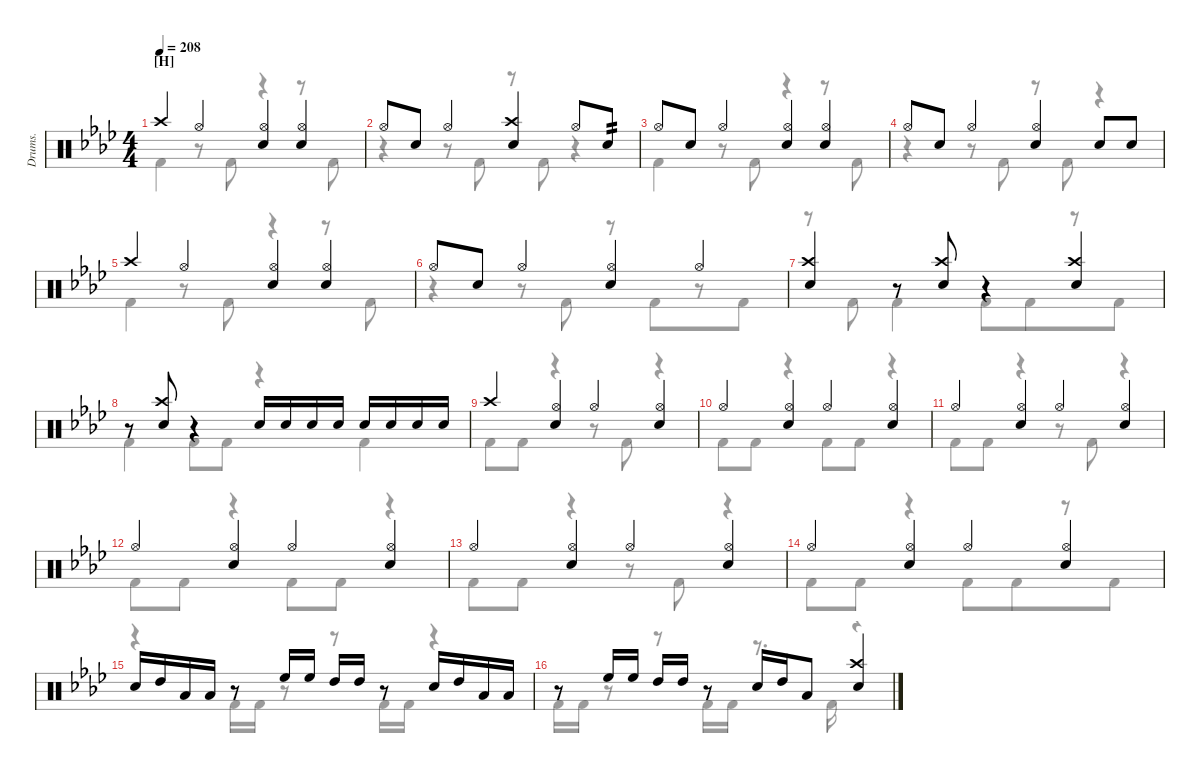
\defaultSystemsLayout 4
\hideDynamics
\otherSystemsTrackNameOrientation horizontal
\track ("Drumkit" "Drums.") {defaultSystemsLayout 4 instrument percussion}
\staff {score}
\articulation defaults
\voice
\ts (4 4)
\section ("H" "")
\tempo 208
\clef neutral
\ks fminor "Crash high (hit)"{acc forcenatural}.4{dy mf} "Hi-Hat (open)"{acc forcenatural}.4
("Hi-Hat (open)"{acc forcenatural} "Snare (hit) 2"{acc forcenatural}).4 ("Hi-Hat (open)"{acc forcenatural} "Snare (hit) 2"{acc forcenatural}).4 |
"Hi-Hat (open)"{acc forcenatural}.8 "Snare (hit) 2"{acc forcenatural}.8 "Hi-Hat (open)"{acc forcenatural}.4 ("Snare (hit) 2"{acc forcenatural} "Crash high (hit)"{acc forcenatural}).4 "Hi-Hat (open)"{acc forcenatural}.8 "Snare (hit) 2"{acc forcenatural}.8{tp 2} |
"Hi-Hat (open)"{acc forcenatural}.8 "Snare (hit) 2"{acc forcenatural}.8 "Hi-Hat (open)"{acc forcenatural}.4 ("Hi-Hat (open)"{acc forcenatural} "Snare (hit) 2"{acc forcenatural}).4 ("Hi-Hat (open)"{acc forcenatural} "Snare (hit) 2"{acc forcenatural}).4 |
"Hi-Hat (open)"{acc forcenatural}.8 "Snare (hit) 2"{acc forcenatural}.8 "Hi-Hat (open)"{acc forcenatural}.4 ("Hi-Hat (open)"{acc forcenatural} "Snare (hit) 2"{acc forcenatural}).4 "Snare (hit) 2"{acc forcenatural}.8 "Snare (hit) 2"{acc forcenatural}.8 |
"Crash high (hit)"{acc forcenatural}.4 "Hi-Hat (open)"{acc forcenatural}.4 ("Hi-Hat (open)"{acc forcenatural} "Snare (hit) 2"{acc forcenatural}).4 ("Hi-Hat (open)"{acc forcenatural} "Snare (hit) 2"{acc forcenatural}).4 |
"Hi-Hat (open)"{acc forcenatural}.8 "Snare (hit) 2"{acc forcenatural}.8 "Hi-Hat (open)"{acc forcenatural}.4 ("Snare (hit) 2"{acc forcenatural} "Hi-Hat (open)"{acc forcenatural}).4 "Hi-Hat (open)"{acc forcenatural}.4 |
("Crash high (hit)"{acc forcenatural} "Snare (hit) 2"{acc forcenatural}).4 r.8 ("Crash high (hit)"{acc forcenatural} "Snare (hit) 2"{acc forcenatural}).8 r.4 ("Crash high (hit)"{acc forcenatural} "Snare (hit) 2"{acc forcenatural}).4 |
r.8 ("Snare (hit) 2"{acc forcenatural} "Crash high (hit)"{acc forcenatural}).8 r.4 "Snare (hit) 2"{acc forcenatural}.16 "Snare (hit) 2"{acc forcenatural}.16 "Snare (hit) 2"{acc forcenatural}.16 "Snare (hit) 2"{acc forcenatural}.16 "Snare (hit) 2"{acc forcenatural}.16 "Snare (hit) 2"{acc forcenatural}.16 "Snare (hit) 2"{acc forcenatural}.16 "Snare (hit) 2"{acc forcenatural}.16 |
"Crash high (hit)"{acc forcenatural}.4 ("Snare (hit) 2"{acc forcenatural} "Hi-Hat (open)"{acc forcenatural}).4 "Hi-Hat (open)"{acc forcenatural}.4 ("Snare (hit) 2"{acc forcenatural} "Hi-Hat (open)"{acc forcenatural}).4 |
"Hi-Hat (open)"{acc forcenatural}.4 ("Snare (hit) 2"{acc forcenatural} "Hi-Hat (open)"{acc forcenatural}).4 "Hi-Hat (open)"{acc forcenatural}.4 ("Snare (hit) 2"{acc forcenatural} "Hi-Hat (open)"{acc forcenatural}).4 |
"Hi-Hat (open)"{acc forcenatural}.4 ("Snare (hit) 2"{acc forcenatural} "Hi-Hat (open)"{acc forcenatural}).4 "Hi-Hat (open)"{acc forcenatural}.4 ("Snare (hit) 2"{acc forcenatural} "Hi-Hat (open)"{acc forcenatural}).4 |
"Hi-Hat (open)"{acc forcenatural}.4 ("Snare (hit) 2"{acc forcenatural} "Hi-Hat (open)"{acc forcenatural}).4 "Hi-Hat (open)"{acc forcenatural}.4 ("Snare (hit) 2"{acc forcenatural} "Hi-Hat (open)"{acc forcenatural}).4 |
"Hi-Hat (open)"{acc forcenatural}.4 ("Snare (hit) 2"{acc forcenatural} "Hi-Hat (open)"{acc forcenatural}).4 "Hi-Hat (open)"{acc forcenatural}.4 ("Snare (hit) 2"{acc forcenatural} "Hi-Hat (open)"{acc forcenatural}).4 |
"Hi-Hat (open)"{acc forcenatural}.4 ("Snare (hit) 2"{acc forcenatural} "Hi-Hat (open)"{acc forcenatural}).4 "Hi-Hat (open)"{acc forcenatural}.4 ("Snare (hit) 2"{acc forcenatural} "Hi-Hat (open)"{acc forcenatural}).4 |
"Snare (hit) 2"{acc forcenatural}.16 "High Tom (hit)"{acc forcenatural}.16 "Low Tom (hit)"{acc forcenatural}.16 "Low Tom (hit)"{acc forcenatural}.16 r.8 "High Floor Tom (hit)"{acc forcenatural}.16 "High Floor Tom (hit)"{acc forcenatural}.16 "High Tom (hit)"{acc forcenatural}.16 "High Tom (hit)"{acc forcenatural}.16 r.8 "Snare (hit) 2"{acc forcenatural}.16 "High Tom (hit)"{acc forcenatural}.16 "Low Tom (hit)"{acc forcenatural}.16 "Low Tom (hit)"{acc forcenatural}.16 |
r.8 "High Floor Tom (hit)"{acc forcenatural}.16 "High Floor Tom (hit)"{acc forcenatural}.16 "High Tom (hit)"{acc forcenatural}.16 "High Tom (hit)"{acc forcenatural}.16 r.8 "Snare (hit) 2"{acc forcenatural}.16 "High Tom (hit)"{acc forcenatural}.16 "Low Tom (hit)"{acc forcenatural}.8 ("Snare (hit) 2"{acc forcenatural} "Crash high (hit)"{acc forcenatural}).4
\voice
\clef neutral
\ottava regular
\simile none
\ks fminor "Kick (hit) 2"{acc forcenatural}.4{dy mf}
r.8 "Kick (hit) 2"{acc forcenatural}.8 r.4 r.8 "Kick (hit) 2"{acc forcenatural}.8 |
r.4 r.8 "Kick (hit) 2"{acc forcenatural}.8 r.8 "Kick (hit) 2"{acc forcenatural}.8 r.4 |
"Kick (hit) 2"{acc forcenatural}.4 r.8 "Kick (hit) 2"{acc forcenatural}.8 r.4 r.8 "Kick (hit) 2"{acc forcenatural}.8 |
r.4 r.8 "Kick (hit) 2"{acc forcenatural}.8 r.8 "Kick (hit) 2"{acc forcenatural}.8 r.4 |
"Kick (hit) 2"{acc forcenatural}.4 r.8 "Kick (hit) 2"{acc forcenatural}.8 r.4 r.8 "Kick (hit) 2"{acc forcenatural}.8 |
r.4 r.8 "Kick (hit) 2"{acc forcenatural}.8 r.8 "Kick (hit) 2"{acc forcenatural}.8{beam merge} r.8{beam merge} "Kick (hit) 2"{acc forcenatural}.8 |
r.8 "Kick (hit) 2"{acc forcenatural}.8 "Kick (hit) 2"{acc forcenatural}.4 "Kick (hit) 2"{acc forcenatural}.8 "Kick (hit) 2"{acc forcenatural}.8{beam merge} r.8{beam merge} "Kick (hit) 2"{acc forcenatural}.8 |
"Kick (hit) 2"{acc forcenatural}.4 "Kick (hit) 2"{acc forcenatural}.8 "Kick (hit) 2"{acc forcenatural}.8 r.4 "Kick (hit) 2"{acc forcenatural}.4 |
"Kick (hit) 2"{acc forcenatural}.8 "Kick (hit) 2"{acc forcenatural}.8 r.4 r.8 "Kick (hit) 2"{acc forcenatural}.8 r.4 |
"Kick (hit) 2"{acc forcenatural}.8 "Kick (hit) 2"{acc forcenatural}.8 r.4 "Kick (hit) 2"{acc forcenatural}.8 "Kick (hit) 2"{acc forcenatural}.8 r.4 |
"Kick (hit) 2"{acc forcenatural}.8 "Kick (hit) 2"{acc forcenatural}.8 r.4 r.8 "Kick (hit) 2"{acc forcenatural}.8 r.4 |
"Kick (hit) 2"{acc forcenatural}.8 "Kick (hit) 2"{acc forcenatural}.8 r.4 "Kick (hit) 2"{acc forcenatural}.8 "Kick (hit) 2"{acc forcenatural}.8 r.4 |
"Kick (hit) 2"{acc forcenatural}.8 "Kick (hit) 2"{acc forcenatural}.8 r.4 r.8 "Kick (hit) 2"{acc forcenatural}.8 r.4 |
"Kick (hit) 2"{acc forcenatural}.8 "Kick (hit) 2"{acc forcenatural}.8 r.4 "Kick (hit) 2"{acc forcenatural}.8 "Kick (hit) 2"{acc forcenatural}.8{beam merge} r.8{beam merge} "Kick (hit) 2"{acc forcenatural}.8 |
r.4 "Kick (hit) 2"{acc forcenatural}.16 "Kick (hit) 2"{acc forcenatural}.16 r.8 r.8 "Kick (hit) 2"{acc forcenatural}.16 "Kick (hit) 2"{acc forcenatural}.16 r.4 |
"Kick (hit) 2"{acc forcenatural}.16 "Kick (hit) 2"{acc forcenatural}.16 r.8 r.8 "Kick (hit) 2"{acc forcenatural}.16 "Kick (hit) 2"{acc forcenatural}.16 r.8{d} "Kick (hit) 2"{acc forcenatural}.16 r.4
